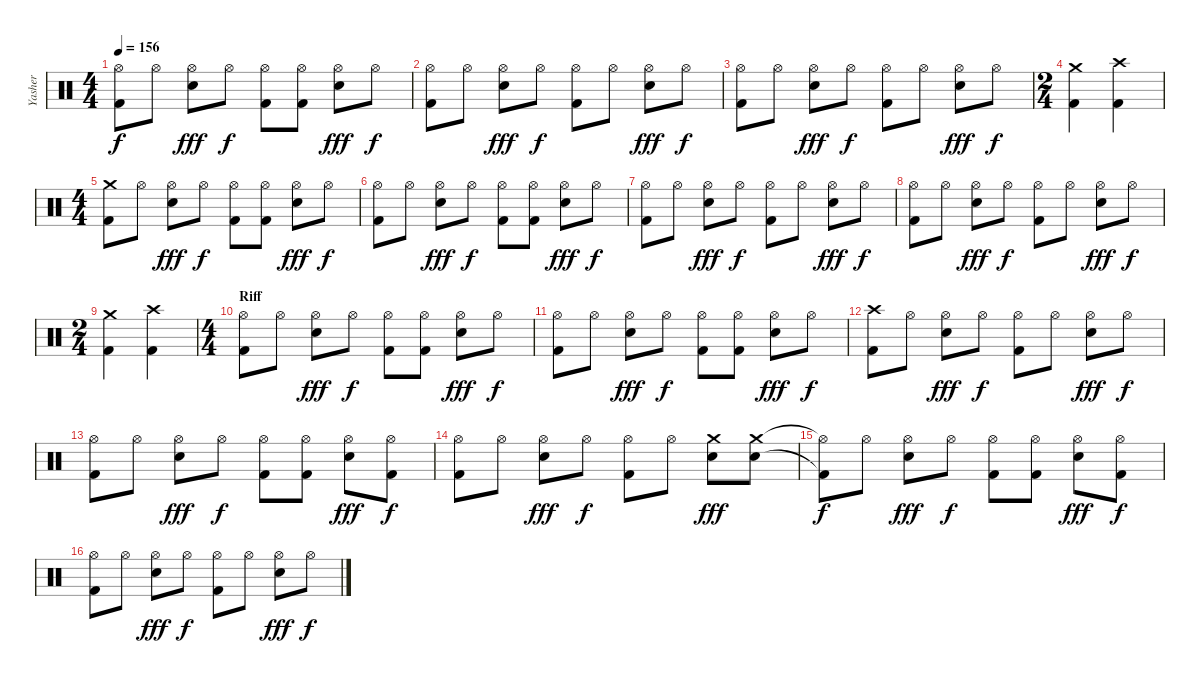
\track ("Yasher" "Yasher") {instrument percussion}
\staff {score}
\articulation defaults
\ts (4 4)
\tempo 156
\clef neutral
\ks c
("Hi-Hat (open)" "Kick (hit) 2").8{dy f} "Hi-Hat (open)".8 ("Hi-Hat (open)" "Electric Snare (hit)").8{dy fff} "Hi-Hat (open)".8{dy f} ("Hi-Hat (open)" "Kick (hit) 2").8 ("Hi-Hat (open)" "Kick (hit) 2").8 ("Hi-Hat (open)" "Electric Snare (hit)").8{dy fff} "Hi-Hat (open)".8{dy f} |
("Hi-Hat (open)" "Kick (hit) 2").8 "Hi-Hat (open)".8 ("Hi-Hat (open)" "Electric Snare (hit)").8{dy fff} "Hi-Hat (open)".8{dy f} ("Hi-Hat (open)" "Kick (hit) 2").8 "Hi-Hat (open)".8 ("Hi-Hat (open)" "Electric Snare (hit)").8{dy fff} "Hi-Hat (open)".8{dy f} |
("Hi-Hat (open)" "Kick (hit) 2").8 "Hi-Hat (open)".8 ("Hi-Hat (open)" "Electric Snare (hit)").8{dy fff} "Hi-Hat (open)".8{dy f} ("Hi-Hat (open)" "Kick (hit) 2").8 "Hi-Hat (open)".8 ("Hi-Hat (open)" "Electric Snare (hit)").8{dy fff} "Hi-Hat (open)".8{dy f} |
\ts (2 4)
("Crash medium (hit)" "Kick (hit) 2").4 ("Crash high (hit)" "Kick (hit) 2").4 |
\ts (4 4)
("Crash medium (hit)" "Kick (hit) 2").8 "Hi-Hat (open)".8 ("Hi-Hat (open)" "Electric Snare (hit)").8{dy fff} "Hi-Hat (open)".8{dy f} ("Hi-Hat (open)" "Kick (hit) 2").8 ("Hi-Hat (open)" "Kick (hit) 2").8 ("Hi-Hat (open)" "Electric Snare (hit)").8{dy fff} "Hi-Hat (open)".8{dy f} |
("Hi-Hat (open)" "Kick (hit) 2").8 "Hi-Hat (open)".8 ("Hi-Hat (open)" "Electric Snare (hit)").8{dy fff} "Hi-Hat (open)".8{dy f} ("Hi-Hat (open)" "Kick (hit) 2").8 ("Hi-Hat (open)" "Kick (hit) 2").8 ("Hi-Hat (open)" "Electric Snare (hit)").8{dy fff} "Hi-Hat (open)".8{dy f} |
("Hi-Hat (open)" "Kick (hit) 2").8 "Hi-Hat (open)".8 ("Hi-Hat (open)" "Electric Snare (hit)").8{dy fff} "Hi-Hat (open)".8{dy f} ("Hi-Hat (open)" "Kick (hit) 2").8 "Hi-Hat (open)".8 ("Hi-Hat (open)" "Electric Snare (hit)").8{dy fff} "Hi-Hat (open)".8{dy f} |
("Hi-Hat (open)" "Kick (hit) 2").8 "Hi-Hat (open)".8 ("Hi-Hat (open)" "Electric Snare (hit)").8{dy fff} "Hi-Hat (open)".8{dy f} ("Hi-Hat (open)" "Kick (hit) 2").8 "Hi-Hat (open)".8 ("Hi-Hat (open)" "Electric Snare (hit)").8{dy fff} "Hi-Hat (open)".8{dy f} |
\ts (2 4)
("Crash medium (hit)" "Kick (hit) 2").4 ("Crash high (hit)" "Kick (hit) 2").4 |
\ts (4 4)
\section ("" "Riff")
("Hi-Hat (open)" "Kick (hit) 2").8 "Hi-Hat (open)".8 ("Hi-Hat (open)" "Electric Snare (hit)").8{dy fff} "Hi-Hat (open)".8{dy f} ("Hi-Hat (open)" "Kick (hit) 2").8 ("Hi-Hat (open)" "Kick (hit) 2").8 ("Hi-Hat (open)" "Electric Snare (hit)").8{dy fff} "Hi-Hat (open)".8{dy f} |
("Hi-Hat (open)" "Kick (hit) 2").8 "Hi-Hat (open)".8 ("Hi-Hat (open)" "Electric Snare (hit)").8{dy fff} "Hi-Hat (open)".8{dy f} ("Hi-Hat (open)" "Kick (hit) 2").8 ("Hi-Hat (open)" "Kick (hit) 2").8 ("Hi-Hat (open)" "Electric Snare (hit)").8{dy fff} "Hi-Hat (open)".8{dy f} |
("Crash high (hit)" "Kick (hit) 2").8 "Hi-Hat (open)".8 ("Hi-Hat (open)" "Electric Snare (hit)").8{dy fff} "Hi-Hat (open)".8{dy f} ("Hi-Hat (open)" "Kick (hit) 2").8 "Hi-Hat (open)".8 ("Hi-Hat (open)" "Electric Snare (hit)").8{dy fff} "Hi-Hat (open)".8{dy f} |
("Hi-Hat (open)" "Kick (hit) 2").8 "Hi-Hat (open)".8 ("Hi-Hat (open)" "Electric Snare (hit)").8{dy fff} "Hi-Hat (open)".8{dy f} ("Hi-Hat (open)" "Kick (hit) 2").8 ("Hi-Hat (open)" "Kick (hit) 2").8 ("Hi-Hat (open)" "Electric Snare (hit)").8{dy fff} ("Hi-Hat (open)" "Kick (hit) 2").8{dy f} |
("Hi-Hat (open)" "Kick (hit) 2").8 "Hi-Hat (open)".8 ("Hi-Hat (open)" "Electric Snare (hit)").8{dy fff} "Hi-Hat (open)".8{dy f} ("Hi-Hat (open)" "Kick (hit) 2").8 "Hi-Hat (open)".8 ("Crash medium (hit)" "Electric Snare (hit)").8{dy fff} ("Crash medium (hit)" "Electric Snare (hit)").8 |
("Hi-Hat (open)"{t} "Kick (hit) 2"{t}).8{dy f} "Hi-Hat (open)".8 ("Hi-Hat (open)" "Electric Snare (hit)").8{dy fff} "Hi-Hat (open)".8{dy f} ("Hi-Hat (open)" "Kick (hit) 2").8 ("Hi-Hat (open)" "Kick (hit) 2").8 ("Hi-Hat (open)" "Electric Snare (hit)").8{dy fff} ("Hi-Hat (open)" "Kick (hit) 2").8{dy f} |
("Hi-Hat (open)" "Kick (hit) 2").8 "Hi-Hat (open)".8 ("Hi-Hat (open)" "Electric Snare (hit)").8{dy fff} "Hi-Hat (open)".8{dy f} ("Hi-Hat (open)" "Kick (hit) 2").8 "Hi-Hat (open)".8 ("Hi-Hat (open)" "Electric Snare (hit)").8{dy fff} "Hi-Hat (open)".8{dy f}
